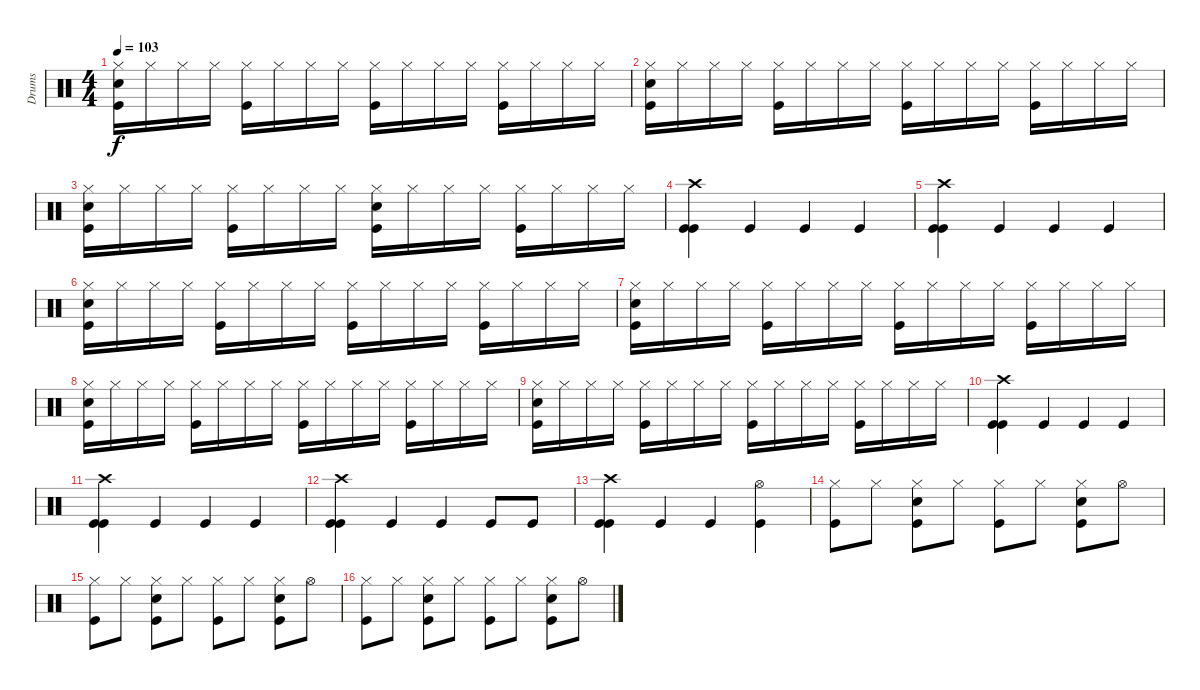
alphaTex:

\track ("Drums" "Drums") {instrument percussion}
\staff {score}
\articulation defaults
\ts (4 4)
\tempo 103
\clef neutral
\ks c
("Hi-Hat (closed)" "Kick (hit)" "Snare (hit) 2").16{dy f} "Hi-Hat (closed)".16 "Hi-Hat (closed)".16 "Hi-Hat (closed)".16 ("Hi-Hat (closed)" "Kick (hit)").16 "Hi-Hat (closed)".16 "Hi-Hat (closed)".16 "Hi-Hat (closed)".16 ("Hi-Hat (closed)" "Kick (hit)").16 "Hi-Hat (closed)".16 "Hi-Hat (closed)".16 "Hi-Hat (closed)".16 ("Hi-Hat (closed)" "Kick (hit)").16 "Hi-Hat (closed)".16 "Hi-Hat (closed)".16 "Hi-Hat (closed)".16 |
("Hi-Hat (closed)" "Kick (hit)" "Snare (hit) 2").16 "Hi-Hat (closed)".16 "Hi-Hat (closed)".16 "Hi-Hat (closed)".16 ("Hi-Hat (closed)" "Kick (hit)").16 "Hi-Hat (closed)".16 "Hi-Hat (closed)".16 "Hi-Hat (closed)".16 ("Hi-Hat (closed)" "Kick (hit)").16 "Hi-Hat (closed)".16 "Hi-Hat (closed)".16 "Hi-Hat (closed)".16 ("Hi-Hat (closed)" "Kick (hit)").16 "Hi-Hat (closed)".16 "Hi-Hat (closed)".16 "Hi-Hat (closed)".16 |
("Hi-Hat (closed)" "Kick (hit)" "Snare (hit) 2").16 "Hi-Hat (closed)".16 "Hi-Hat (closed)".16 "Hi-Hat (closed)".16 ("Hi-Hat (closed)" "Kick (hit)").16 "Hi-Hat (closed)".16 "Hi-Hat (closed)".16 "Hi-Hat (closed)".16 ("Hi-Hat (closed)" "Kick (hit)" "Snare (hit) 2").16 "Hi-Hat (closed)".16 "Hi-Hat (closed)".16 "Hi-Hat (closed)".16 ("Hi-Hat (closed)" "Kick (hit)").16 "Hi-Hat (closed)".16 "Hi-Hat (closed)".16 "Hi-Hat (closed)".16 |
("Crash high (hit)" "Kick (hit)" "Kick (hit)").4 "Kick (hit)".4 "Kick (hit)".4 "Kick (hit)".4 |
("Crash high (hit)" "Kick (hit)" "Kick (hit)").4 "Kick (hit)".4 "Kick (hit)".4 "Kick (hit)".4 |
("Hi-Hat (closed)" "Kick (hit)" "Snare (hit) 2").16 "Hi-Hat (closed)".16 "Hi-Hat (closed)".16 "Hi-Hat (closed)".16 ("Hi-Hat (closed)" "Kick (hit)").16 "Hi-Hat (closed)".16 "Hi-Hat (closed)".16 "Hi-Hat (closed)".16 ("Hi-Hat (closed)" "Kick (hit)").16 "Hi-Hat (closed)".16 "Hi-Hat (closed)".16 "Hi-Hat (closed)".16 ("Hi-Hat (closed)" "Kick (hit)").16 "Hi-Hat (closed)".16 "Hi-Hat (closed)".16 "Hi-Hat (closed)".16 |
("Hi-Hat (closed)" "Kick (hit)" "Snare (hit) 2").16 "Hi-Hat (closed)".16 "Hi-Hat (closed)".16 "Hi-Hat (closed)".16 ("Hi-Hat (closed)" "Kick (hit)").16 "Hi-Hat (closed)".16 "Hi-Hat (closed)".16 "Hi-Hat (closed)".16 ("Hi-Hat (closed)" "Kick (hit)").16 "Hi-Hat (closed)".16 "Hi-Hat (closed)".16 "Hi-Hat (closed)".16 ("Hi-Hat (closed)" "Kick (hit)").16 "Hi-Hat (closed)".16 "Hi-Hat (closed)".16 "Hi-Hat (closed)".16 |
("Hi-Hat (closed)" "Kick (hit)" "Snare (hit) 2").16 "Hi-Hat (closed)".16 "Hi-Hat (closed)".16 "Hi-Hat (closed)".16 ("Hi-Hat (closed)" "Kick (hit)").16 "Hi-Hat (closed)".16 "Hi-Hat (closed)".16 "Hi-Hat (closed)".16 ("Hi-Hat (closed)" "Kick (hit)").16 "Hi-Hat (closed)".16 "Hi-Hat (closed)".16 "Hi-Hat (closed)".16 ("Hi-Hat (closed)" "Kick (hit)").16 "Hi-Hat (closed)".16 "Hi-Hat (closed)".16 "Hi-Hat (closed)".16 |
("Hi-Hat (closed)" "Kick (hit)" "Snare (hit) 2").16 "Hi-Hat (closed)".16 "Hi-Hat (closed)".16 "Hi-Hat (closed)".16 ("Hi-Hat (closed)" "Kick (hit)").16 "Hi-Hat (closed)".16 "Hi-Hat (closed)".16 "Hi-Hat (closed)".16 ("Hi-Hat (closed)" "Kick (hit)").16 "Hi-Hat (closed)".16 "Hi-Hat (closed)".16 "Hi-Hat (closed)".16 ("Hi-Hat (closed)" "Kick (hit)").16 "Hi-Hat (closed)".16 "Hi-Hat (closed)".16 "Hi-Hat (closed)".16 |
("Crash high (hit)" "Kick (hit)" "Kick (hit)").4 "Kick (hit)".4 "Kick (hit)".4 "Kick (hit)".4 |
("Crash high (hit)" "Kick (hit)" "Kick (hit)").4 "Kick (hit)".4 "Kick (hit)".4 "Kick (hit)".4 |
("Crash high (hit)" "Kick (hit)" "Kick (hit)").4 "Kick (hit)".4 "Kick (hit)".4 "Kick (hit)".8 "Kick (hit)".8 |
("Crash high (hit)" "Kick (hit)" "Kick (hit)").4 "Kick (hit)".4 "Kick (hit)".4 ("Hi-Hat (open)" "Kick (hit)").4 |
("Hi-Hat (closed)" "Kick (hit)").8 "Hi-Hat (closed)".8 ("Hi-Hat (closed)" "Kick (hit)" "Snare (hit) 2").8 "Hi-Hat (closed)".8 ("Hi-Hat (closed)" "Kick (hit)").8 "Hi-Hat (closed)".8 ("Hi-Hat (closed)" "Kick (hit)" "Snare (hit) 2").8 "Hi-Hat (open)".8 |
("Hi-Hat (closed)" "Kick (hit)").8 "Hi-Hat (closed)".8 ("Hi-Hat (closed)" "Kick (hit)" "Snare (hit) 2").8 "Hi-Hat (closed)".8 ("Hi-Hat (closed)" "Kick (hit)").8 "Hi-Hat (closed)".8 ("Hi-Hat (closed)" "Kick (hit)" "Snare (hit) 2").8 "Hi-Hat (open)".8 |
("Hi-Hat (closed)" "Kick (hit)").8 "Hi-Hat (closed)".8 ("Hi-Hat (closed)" "Kick (hit)" "Snare (hit) 2").8 "Hi-Hat (closed)".8 ("Hi-Hat (closed)" "Kick (hit)").8 "Hi-Hat (closed)".8 ("Hi-Hat (closed)" "Kick (hit)" "Snare (hit) 2").8 "Hi-Hat (open)".8
